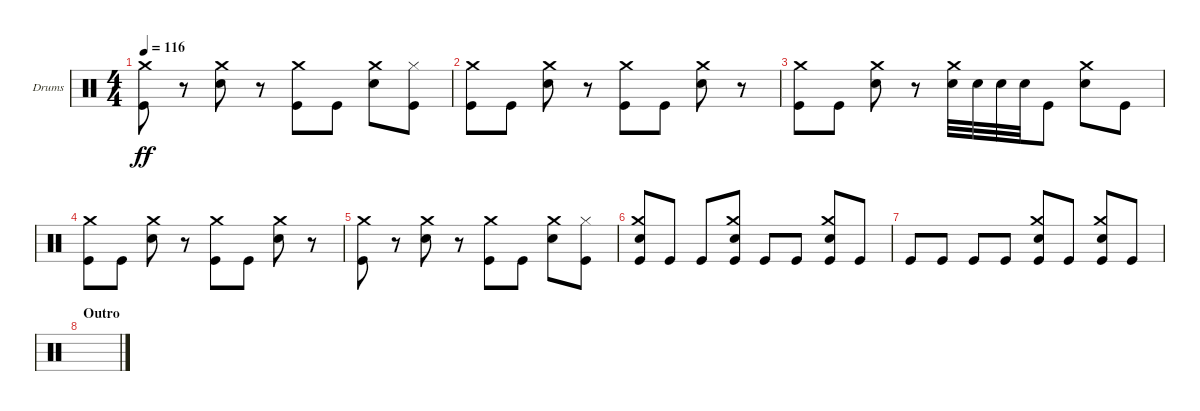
\defaultSystemsLayout 4
\bracketExtendMode groupsimilarinstruments
\firstSystemTrackNameOrientation horizontal
\otherSystemsTrackNameOrientation horizontal
\track ("Drumkit" "Drums") {instrument percussion}
\staff {score}
\articulation defaults
\ts (4 4)
\tempo 116
\clef neutral
\ks c
("Kick (hit)" "Crash medium (hit)").8{dy ff} r.8 ("Snare (hit) 2" "Crash medium (hit)").8 r.8 ("Kick (hit)" "Crash medium (hit)").8 "Kick (hit)".8 ("Snare (hit) 2" "Crash medium (hit)").8 ("Hi-Hat (closed)" "Kick (hit)").8 |
("Kick (hit)" "Crash medium (hit)").8 "Kick (hit)".8 ("Snare (hit) 2" "Crash medium (hit)").8 r.8 ("Kick (hit)" "Crash medium (hit)").8 "Kick (hit)".8 ("Snare (hit) 2" "Crash medium (hit)").8 r.8 |
("Crash medium (hit)" "Kick (hit)").8 "Kick (hit)".8 ("Snare (hit) 2" "Crash medium (hit)").8 r.8 ("Snare (hit) 2" "Crash medium (hit)").32 "Snare (hit) 2".32 "Snare (hit) 2".32 "Snare (hit) 2".32 "Kick (hit)".8 ("Snare (hit) 2" "Crash medium (hit)").8 "Kick (hit)".8 |
("Kick (hit)" "Crash medium (hit)").8 "Kick (hit)".8 ("Snare (hit) 2" "Crash medium (hit)").8 r.8 ("Kick (hit)" "Crash medium (hit)").8 "Kick (hit)".8 ("Snare (hit) 2" "Crash medium (hit)").8 r.8 |
("Kick (hit)" "Crash medium (hit)").8 r.8 ("Snare (hit) 2" "Crash medium (hit)").8 r.8 ("Kick (hit)" "Crash medium (hit)").8 "Kick (hit)".8 ("Snare (hit) 2" "Crash medium (hit)").8 ("Hi-Hat (closed)" "Kick (hit)").8 |
("Snare (hit) 2" "Kick (hit)" "Crash medium (hit)").8 "Kick (hit)".8 "Kick (hit)".8 ("Kick (hit)" "Snare (hit) 2" "Crash medium (hit)").8 "Kick (hit)".8 "Kick (hit)".8 ("Kick (hit)" "Snare (hit) 2" "Crash medium (hit)").8 "Kick (hit)".8 |
"Kick (hit)".8 "Kick (hit)".8 "Kick (hit)".8 "Kick (hit)".8 ("Kick (hit)" "Snare (hit) 2" "Crash medium (hit)").8 "Kick (hit)".8 ("Kick (hit)" "Snare (hit) 2" "Crash medium (hit)").8 "Kick (hit)".8 |
\section ("" "Outro")
